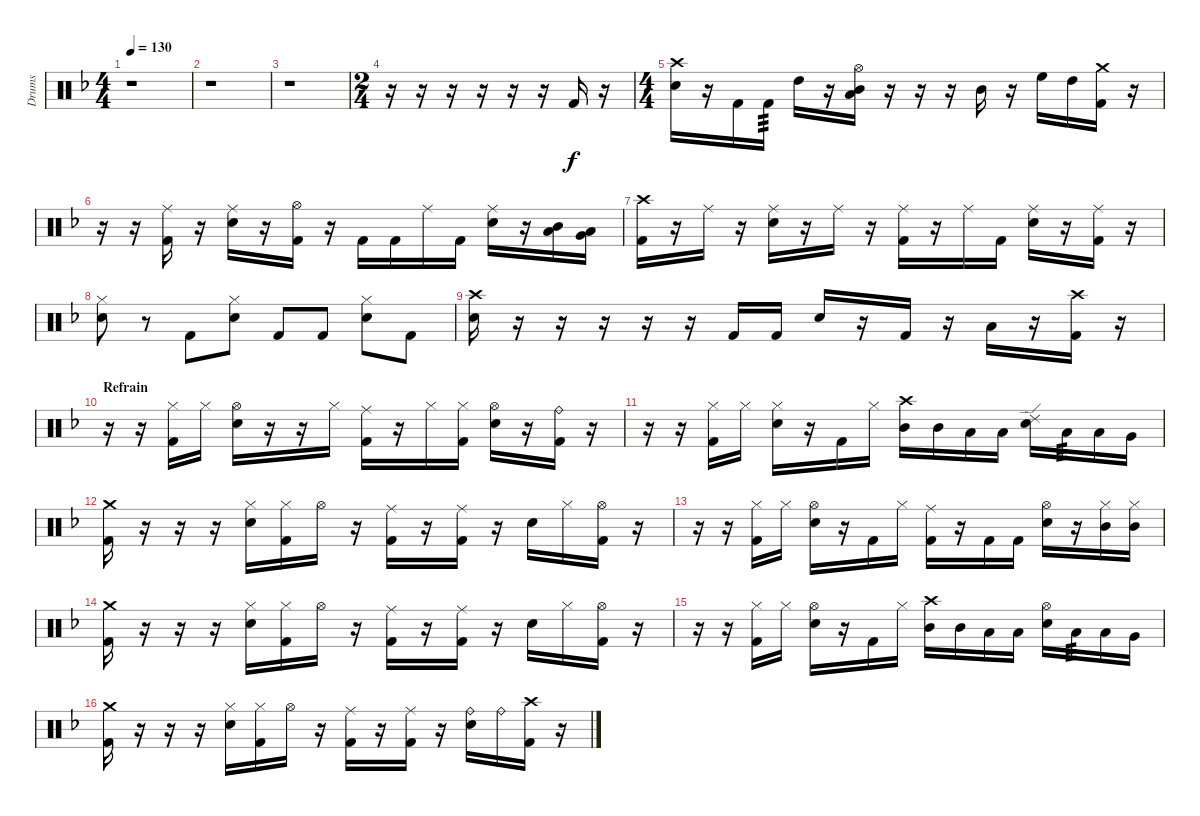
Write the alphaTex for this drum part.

\track ("Drums" "Drums") {instrument percussion}
\staff {score}
\articulation defaults
\ts (4 4)
\tempo 130
\clef neutral
\ks dminor
r.1{dy f} |
r.1 |
r.1 |
\ts (2 4)
r.16 r.16 r.16 r.16 r.16 r.16 "Kick (hit) 2".16 r.16 |
\ts (4 4)
("Crash high (hit)" "Snare (hit) 2").16 r.16 "Kick (hit) 2".16 "Kick (hit) 2".16{tp 3} "High Tom (hit)".16 r.16 ("Mid Tom (hit)" "Low Tom (hit)" "Hi-Hat (open)").16 r.16 r.16 r.16 "Mid Tom (hit)".16 r.16 "High Floor Tom (hit)".16 "High Tom (hit)".16 ("Crash medium (hit)" "Kick (hit) 2").16 r.16 |
r.16 r.16 ("Kick (hit) 2" "Ride (middle)").16 r.16 ("Snare (hit) 2" "Ride (middle)").16 r.16 ("Kick (hit) 2" "Hi-Hat (open)").16 r.16 "Kick (hit) 2".16 "Kick (hit) 2".16 "Ride (middle)".16 "Kick (hit) 2".16 ("Ride (middle)" "Snare (hit) 2").16 r.16 ("Mid Tom (hit)" "Low Tom (hit)").16 ("Low Tom (hit)" "Very Low Tom (hit)").16 |
("Crash high (hit)" "Kick (hit) 2").16 r.16 "Ride (middle)".16 r.16 ("Snare (hit) 2" "Ride (middle)").16 r.16 "Ride (middle)".16 r.16 ("Ride (middle)" "Kick (hit) 2").16 r.16 "Ride (middle)".16 "Kick (hit) 2".16 ("Snare (hit) 2" "Ride (middle)").16 r.16 ("Ride (middle)" "Kick (hit) 2").16 r.16 |
("Snare (hit) 2" "Hi-Hat (closed)").8 r.8 "Kick (hit) 2".8 ("Snare (hit) 2" "Hi-Hat (closed)").8 "Kick (hit) 2".8 "Kick (hit) 2".8 ("Snare (hit) 2" "Hi-Hat (closed)").8 "Kick (hit) 2".8 |
("Crash high (hit)" "Snare (hit) 2").16 r.16 r.16 r.16 r.16 r.16 "Kick (hit) 2".16 "Kick (hit) 2".16 "Snare (hit) 2".16 r.16 "Kick (hit) 2".16 r.16 "Low Tom (hit)".16 r.16 ("Crash high (hit)" "Kick (hit) 2").16 r.16 |
\section ("" "Refrain")
r.16 r.16 ("Kick (hit) 2" "Hi-Hat (closed)").16 "Hi-Hat (closed)".16 ("Snare (hit) 2" "Hi-Hat (open)").16 r.16 r.16 "Hi-Hat (closed)".16 ("Kick (hit) 2" "Ride (middle)").16 r.16 "Hi-Hat (closed)".16 ("Kick (hit) 2" "Hi-Hat (closed)").16 ("Snare (hit) 2" "Hi-Hat (open)").16 r.16 ("Kick (hit) 2" "Ride (bell)").16 r.16 |
r.16 r.16 ("Kick (hit) 2" "Hi-Hat (closed)").16 "Hi-Hat (closed)".16 ("Snare (hit) 2" "Hi-Hat (closed)").16 r.16 "Kick (hit) 2".16 "Hi-Hat (closed)".16 ("Mid Tom (hit)" "Crash high (hit)").16 "Mid Tom (hit)".16 "Low Tom (hit)".16 "Low Tom (hit)".16 ("Snare (hit) 2" "Ride (edge) 2").16 "Low Tom (hit)".16{tp 3} "Low Tom (hit)".16 "Very Low Tom (hit)".16 |
("Kick (hit) 2" "Crash medium (hit)").16 r.16 r.16 r.16 ("Snare (hit) 2" "Hi-Hat (closed)").16 ("Kick (hit) 2" "Hi-Hat (closed)").16 "Hi-Hat (open)".16 r.16 ("Kick (hit) 2" "Ride (middle)").16 r.16 ("Kick (hit) 2" "Ride (middle)").16 r.16 "Snare (hit) 2".16 "Hi-Hat (closed)".16 ("Kick (hit) 2" "Hi-Hat (open)").16 r.16 |
r.16 r.16 ("Kick (hit) 2" "Hi-Hat (closed)").16 "Hi-Hat (closed)".16 ("Snare (hit) 2" "Hi-Hat (open)").16 r.16 "Kick (hit) 2".16 "Hi-Hat (closed)".16 ("Kick (hit) 2" "Ride (middle)").16 r.16 "Kick (hit) 2".16 "Kick (hit) 2".16 ("Snare (hit) 2" "Hi-Hat (open)").16 r.16 ("Mid Tom (hit)" "Hi-Hat (closed)").16 ("Mid Tom (hit)" "Hi-Hat (closed)").16 |
("Kick (hit) 2" "Crash medium (hit)").16 r.16 r.16 r.16 ("Snare (hit) 2" "Hi-Hat (closed)").16 ("Kick (hit) 2" "Hi-Hat (closed)").16 "Hi-Hat (open)".16 r.16 ("Kick (hit) 2" "Ride (middle)").16 r.16 ("Kick (hit) 2" "Ride (middle)").16 r.16 "Snare (hit) 2".16 "Hi-Hat (closed)".16 ("Kick (hit) 2" "Hi-Hat (open)").16 r.16 |
r.16 r.16 ("Kick (hit) 2" "Hi-Hat (closed)").16 "Hi-Hat (closed)".16 ("Snare (hit) 2" "Hi-Hat (open)").16 r.16 "Kick (hit) 2".16 "Hi-Hat (closed)".16 ("Mid Tom (hit)" "Crash high (hit)").16 "Mid Tom (hit)".16 "Low Tom (hit)".16 "Low Tom (hit)".16 ("Snare (hit) 2" "Hi-Hat (open)").16 "Low Tom (hit)".16{tp 3} "Low Tom (hit)".16 "Very Low Tom (hit)".16 |
("Kick (hit) 2" "Crash medium (hit)").16 r.16 r.16 r.16 ("Snare (hit) 2" "Hi-Hat (closed)").16 ("Kick (hit) 2" "Hi-Hat (closed)").16 "Hi-Hat (open)".16 r.16 ("Kick (hit) 2" "Ride (middle)").16 r.16 ("Kick (hit) 2" "Ride (middle)").16 r.16 ("Snare (hit) 2" "Ride (bell)").16 "Ride (bell)".16 ("Kick (hit) 2" "Crash high (hit)").16 r.16
